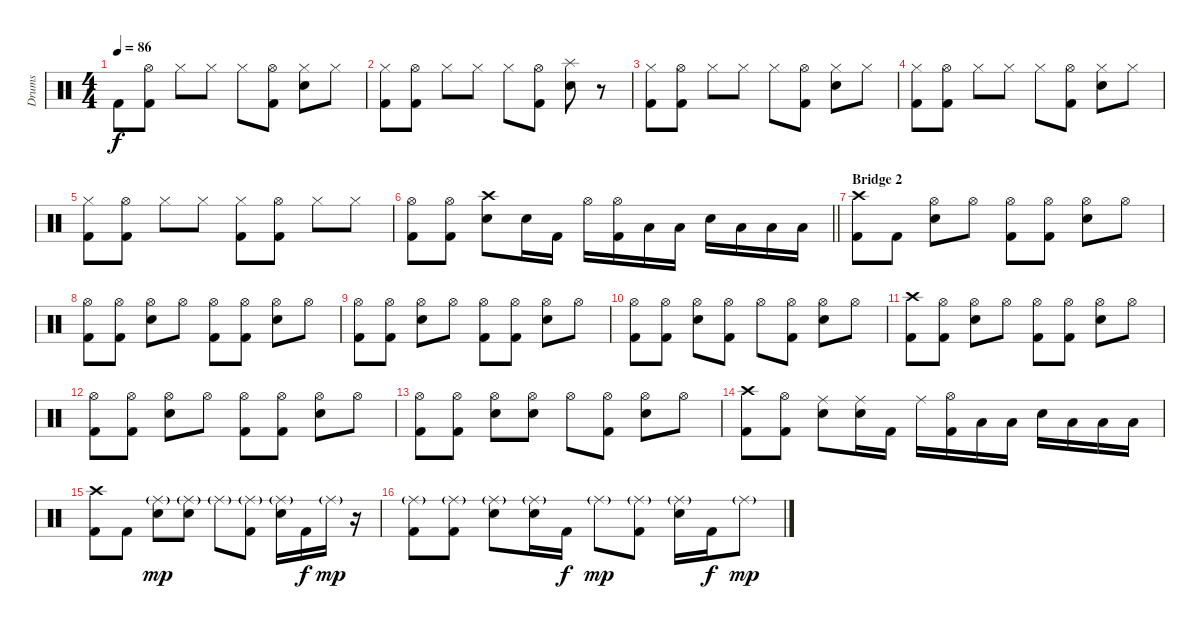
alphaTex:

\track ("Drums" "Drums") {instrument percussion}
\staff {score}
\articulation defaults
\ts (4 4)
\tempo 86
\clef neutral
\ks aminor "Kick (hit) 2".8{dy f}
("Hi-Hat (open)" "Kick (hit) 2").8 "Hi-Hat (closed)".8 "Hi-Hat (closed)".8 "Hi-Hat (closed)".8 ("Hi-Hat (open)" "Kick (hit) 2").8 ("Hi-Hat (closed)" "Snare (hit) 2").8 "Hi-Hat (closed)".8 |
("Hi-Hat (closed)" "Kick (hit) 2").8 ("Hi-Hat (open)" "Kick (hit) 2").8 "Hi-Hat (closed)".8 "Hi-Hat (closed)".8 "Hi-Hat (closed)".8 ("Hi-Hat (open)" "Kick (hit) 2").8 ("Splash (hit)" "Snare (hit) 2").8 r.8 |
("Hi-Hat (closed)" "Kick (hit) 2").8 ("Hi-Hat (open)" "Kick (hit) 2").8 "Hi-Hat (closed)".8 "Hi-Hat (closed)".8 "Hi-Hat (closed)".8 ("Hi-Hat (open)" "Kick (hit) 2").8 ("Hi-Hat (closed)" "Snare (hit) 2").8 "Hi-Hat (closed)".8 |
("Hi-Hat (closed)" "Kick (hit) 2").8 ("Hi-Hat (open)" "Kick (hit) 2").8 "Hi-Hat (closed)".8 "Hi-Hat (closed)".8 "Hi-Hat (closed)".8 ("Hi-Hat (open)" "Kick (hit) 2").8 ("Hi-Hat (closed)" "Snare (hit) 2").8 "Hi-Hat (closed)".8 |
("Hi-Hat (closed)" "Kick (hit) 2").8 ("Hi-Hat (open)" "Kick (hit) 2").8 "Hi-Hat (closed)".8 "Hi-Hat (closed)".8 ("Hi-Hat (closed)" "Kick (hit) 2").8 ("Hi-Hat (open)" "Kick (hit) 2").8 "Hi-Hat (closed)".8 "Hi-Hat (closed)".8 |
\barLineRight lightlight
("Hi-Hat (open)" "Kick (hit) 2").8 ("Hi-Hat (open)" "Kick (hit) 2").8 ("Crash high (hit)" "Snare (hit) 2").8 "Snare (hit) 2".16 "Kick (hit) 2".16 "Hi-Hat (open)".16 ("Hi-Hat (open)" "Kick (hit) 2").16 "Low Tom (hit)".16 "Low Tom (hit)".16 "Snare (hit) 2".16 "Low Floor Tom (hit)".16 "Low Floor Tom (hit)".16 "Low Floor Tom (hit)".16 |
\section ("" "Bridge 2")
("Crash high (hit)" "Kick (hit) 2").8 "Kick (hit) 2".8 ("Hi-Hat (open)" "Snare (hit) 2").8 "Hi-Hat (open)".8 ("Hi-Hat (open)" "Kick (hit) 2").8 ("Hi-Hat (open)" "Kick (hit) 2").8 ("Hi-Hat (open)" "Snare (hit) 2").8 "Hi-Hat (open)".8 |
("Hi-Hat (open)" "Kick (hit) 2").8 ("Hi-Hat (open)" "Kick (hit) 2").8 ("Hi-Hat (open)" "Snare (hit) 2").8 "Hi-Hat (open)".8 ("Hi-Hat (open)" "Kick (hit) 2").8 ("Hi-Hat (open)" "Kick (hit) 2").8 ("Hi-Hat (open)" "Snare (hit) 2").8 "Hi-Hat (open)".8 |
("Hi-Hat (open)" "Kick (hit) 2").8 ("Hi-Hat (open)" "Kick (hit) 2").8 ("Hi-Hat (open)" "Snare (hit) 2").8 "Hi-Hat (open)".8 ("Hi-Hat (open)" "Kick (hit) 2").8 ("Hi-Hat (open)" "Kick (hit) 2").8 ("Hi-Hat (open)" "Snare (hit) 2").8 "Hi-Hat (open)".8 |
("Hi-Hat (open)" "Kick (hit) 2").8 ("Hi-Hat (open)" "Kick (hit) 2").8 ("Hi-Hat (open)" "Snare (hit) 2").8 ("Hi-Hat (open)" "Kick (hit) 2").8 "Hi-Hat (open)".8 ("Hi-Hat (open)" "Kick (hit) 2").8 ("Hi-Hat (open)" "Snare (hit) 2").8 "Hi-Hat (open)".8 |
("Crash high (hit)" "Kick (hit) 2").8 ("Hi-Hat (open)" "Kick (hit) 2").8 ("Hi-Hat (open)" "Snare (hit) 2").8 "Hi-Hat (open)".8 ("Hi-Hat (open)" "Kick (hit) 2").8 ("Hi-Hat (open)" "Kick (hit) 2").8 ("Hi-Hat (open)" "Snare (hit) 2").8 "Hi-Hat (open)".8 |
("Hi-Hat (open)" "Kick (hit) 2").8 ("Hi-Hat (open)" "Kick (hit) 2").8 ("Hi-Hat (open)" "Snare (hit) 2").8 "Hi-Hat (open)".8 ("Hi-Hat (open)" "Kick (hit) 2").8 ("Hi-Hat (open)" "Kick (hit) 2").8 ("Hi-Hat (open)" "Snare (hit) 2").8 "Hi-Hat (open)".8 |
("Hi-Hat (open)" "Kick (hit) 2").8 ("Hi-Hat (open)" "Kick (hit) 2").8 ("Hi-Hat (open)" "Snare (hit) 2").8 ("Hi-Hat (open)" "Snare (hit) 2").8 "Hi-Hat (open)".8 ("Hi-Hat (open)" "Kick (hit) 2").8 ("Hi-Hat (open)" "Snare (hit) 2").8 "Hi-Hat (open)".8 |
("Crash high (hit)" "Kick (hit) 2").8 ("Hi-Hat (open)" "Kick (hit) 2").8 ("Ride (middle)" "Snare (hit) 2").8 ("Ride (middle)" "Snare (hit) 2").16 "Kick (hit) 2".16 "Ride (middle)".16 ("Hi-Hat (open)" "Kick (hit) 2").16 "Low Tom (hit)".16 "Low Tom (hit)".16 "Snare (hit) 2".16 "Low Floor Tom (hit)".16 "Low Floor Tom (hit)".16 "Low Floor Tom (hit)".16 |
("Crash high (hit)" "Kick (hit) 2").8 "Kick (hit) 2".8 ("Ride (middle)"{g} "Snare (hit) 2").8{dy mp} ("Ride (middle)"{g} "Snare (hit) 2").8 "Ride (middle)"{g}.8 ("Ride (middle)"{g} "Kick (hit) 2").8 ("Ride (middle)"{g} "Snare (hit) 2").16 "Kick (hit) 2".16{dy f} "Ride (middle)"{g}.16{dy mp} r.16 |
("Ride (middle)"{g} "Kick (hit) 2").8 ("Ride (middle)"{g} "Kick (hit) 2").8 ("Ride (middle)"{g} "Snare (hit) 2").8 ("Ride (middle)"{g} "Snare (hit) 2").16 "Kick (hit) 2".16{dy f} "Ride (middle)"{g}.8{dy mp} ("Ride (middle)"{g} "Kick (hit) 2").8 ("Ride (middle)"{g} "Snare (hit) 2").16 "Kick (hit) 2".16{dy f} "Ride (middle)"{g}.8{dy mp}
